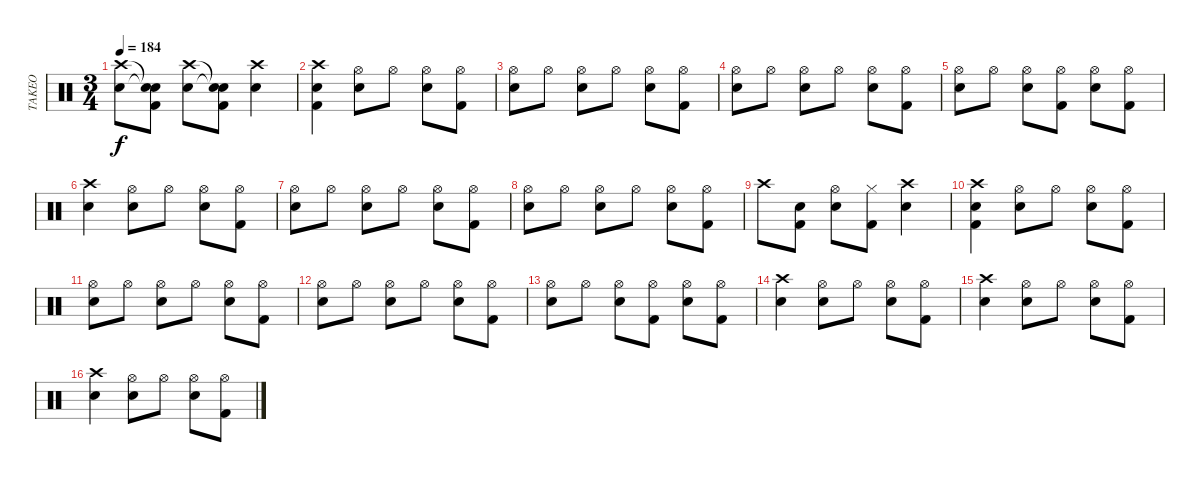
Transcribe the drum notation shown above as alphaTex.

\track ("TAKEO" "TAKEO") {instrument percussion}
\staff {score}
\articulation defaults
\ts (3 4)
\tempo 184
\clef neutral
\ks c
("Crash high (hit)" "Electric Snare (hit)").8{dy f} ("Snare (hit)"{t} "Snare (hit)"{t} "Kick (hit) 2").8 ("Crash high (hit)" "Electric Snare (hit)").8 ("Snare (hit)"{t} "Snare (hit)"{t} "Kick (hit) 2").8 ("Crash high (hit)" "Electric Snare (hit)").4 |
("Crash high (hit)" "Electric Snare (hit)" "Kick (hit) 2").4 ("Hi-Hat (open)" "Electric Snare (hit)").8 "Hi-Hat (open)".8 ("Hi-Hat (open)" "Electric Snare (hit)").8 ("Hi-Hat (open)" "Kick (hit) 2").8 |
("Hi-Hat (open)" "Electric Snare (hit)").8 "Hi-Hat (open)".8 ("Hi-Hat (open)" "Electric Snare (hit)").8 "Hi-Hat (open)".8 ("Hi-Hat (open)" "Electric Snare (hit)").8 ("Hi-Hat (open)" "Kick (hit) 2").8 |
("Hi-Hat (open)" "Electric Snare (hit)").8 "Hi-Hat (open)".8 ("Hi-Hat (open)" "Electric Snare (hit)").8 "Hi-Hat (open)".8 ("Hi-Hat (open)" "Electric Snare (hit)").8 ("Hi-Hat (open)" "Kick (hit) 2").8 |
("Hi-Hat (open)" "Electric Snare (hit)").8 "Hi-Hat (open)".8 ("Hi-Hat (open)" "Electric Snare (hit)").8 ("Hi-Hat (open)" "Kick (hit) 2").8 ("Hi-Hat (open)" "Electric Snare (hit)").8 ("Hi-Hat (open)" "Kick (hit) 2").8 |
("Crash high (hit)" "Electric Snare (hit)").4 ("Hi-Hat (open)" "Electric Snare (hit)").8 "Hi-Hat (open)".8 ("Hi-Hat (open)" "Electric Snare (hit)").8 ("Hi-Hat (open)" "Kick (hit) 2").8 |
("Hi-Hat (open)" "Electric Snare (hit)").8 "Hi-Hat (open)".8 ("Hi-Hat (open)" "Electric Snare (hit)").8 "Hi-Hat (open)".8 ("Hi-Hat (open)" "Electric Snare (hit)").8 ("Hi-Hat (open)" "Kick (hit) 2").8 |
("Hi-Hat (open)" "Electric Snare (hit)").8 "Hi-Hat (open)".8 ("Hi-Hat (open)" "Electric Snare (hit)").8 "Hi-Hat (open)".8 ("Hi-Hat (open)" "Electric Snare (hit)").8 ("Hi-Hat (open)" "Kick (hit) 2").8 |
"Crash high (hit)".8 ("Electric Snare (hit)" "Kick (hit) 2").8 ("Hi-Hat (open)" "Electric Snare (hit)").8 ("Hi-Hat (closed)" "Kick (hit) 2").8 ("Crash high (hit)" "Electric Snare (hit)").4 |
("Crash high (hit)" "Electric Snare (hit)" "Kick (hit) 2").4 ("Hi-Hat (open)" "Electric Snare (hit)").8 "Hi-Hat (open)".8 ("Hi-Hat (open)" "Electric Snare (hit)").8 ("Hi-Hat (open)" "Kick (hit) 2").8 |
("Hi-Hat (open)" "Electric Snare (hit)").8 "Hi-Hat (open)".8 ("Hi-Hat (open)" "Electric Snare (hit)").8 "Hi-Hat (open)".8 ("Hi-Hat (open)" "Electric Snare (hit)").8 ("Hi-Hat (open)" "Kick (hit) 2").8 |
("Hi-Hat (open)" "Electric Snare (hit)").8 "Hi-Hat (open)".8 ("Hi-Hat (open)" "Electric Snare (hit)").8 "Hi-Hat (open)".8 ("Hi-Hat (open)" "Electric Snare (hit)").8 ("Hi-Hat (open)" "Kick (hit) 2").8 |
("Hi-Hat (open)" "Electric Snare (hit)").8 "Hi-Hat (open)".8 ("Hi-Hat (open)" "Electric Snare (hit)").8 ("Hi-Hat (open)" "Kick (hit) 2").8 ("Hi-Hat (open)" "Electric Snare (hit)").8 ("Hi-Hat (open)" "Kick (hit) 2").8 |
("Crash high (hit)" "Electric Snare (hit)").4 ("Hi-Hat (open)" "Electric Snare (hit)").8 "Hi-Hat (open)".8 ("Hi-Hat (open)" "Electric Snare (hit)").8 ("Hi-Hat (open)" "Kick (hit) 2").8 |
("Crash high (hit)" "Electric Snare (hit)").4 ("Hi-Hat (open)" "Electric Snare (hit)").8 "Hi-Hat (open)".8 ("Hi-Hat (open)" "Electric Snare (hit)").8 ("Hi-Hat (open)" "Kick (hit) 2").8 |
("Crash high (hit)" "Electric Snare (hit)").4 ("Hi-Hat (open)" "Electric Snare (hit)").8 "Hi-Hat (open)".8 ("Hi-Hat (open)" "Electric Snare (hit)").8 ("Hi-Hat (open)" "Kick (hit) 2").8
